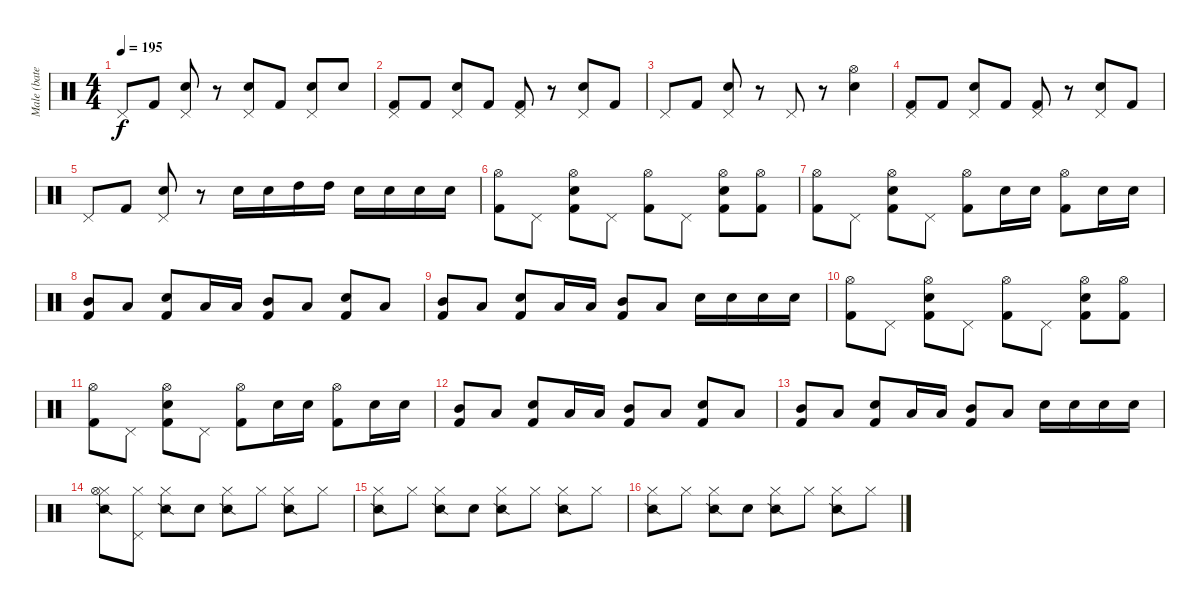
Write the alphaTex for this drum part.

\track ("Male (bateria)" "Male (bate") {instrument percussion}
\staff {score}
\articulation defaults
\ts (4 4)
\tempo 195
\clef neutral
\ks c "Pedal Hi-Hat (hit)".8{dy f} "Kick (hit) 2".8
("Electric Snare (hit)" "Pedal Hi-Hat (hit)").8 r.8 ("Electric Snare (hit)" "Pedal Hi-Hat (hit)").8 "Kick (hit) 2".8 ("Electric Snare (hit)" "Pedal Hi-Hat (hit)").8 "Electric Snare (hit)".8 |
("Kick (hit) 2" "Pedal Hi-Hat (hit)").8 "Kick (hit) 2".8 ("Electric Snare (hit)" "Pedal Hi-Hat (hit)").8 "Kick (hit) 2".8 ("Kick (hit) 2" "Pedal Hi-Hat (hit)").8 r.8 ("Electric Snare (hit)" "Pedal Hi-Hat (hit)").8 "Kick (hit) 2".8 |
"Pedal Hi-Hat (hit)".8 "Kick (hit) 2".8 ("Electric Snare (hit)" "Pedal Hi-Hat (hit)").8 r.8 "Pedal Hi-Hat (hit)".8 r.8 ("Electric Snare (hit)" "Hi-Hat (open)").4 |
("Kick (hit) 2" "Pedal Hi-Hat (hit)").8 "Kick (hit) 2".8 ("Electric Snare (hit)" "Pedal Hi-Hat (hit)").8 "Kick (hit) 2".8 ("Kick (hit) 2" "Pedal Hi-Hat (hit)").8 r.8 ("Electric Snare (hit)" "Pedal Hi-Hat (hit)").8 "Kick (hit) 2".8 |
"Pedal Hi-Hat (hit)".8 "Kick (hit) 2".8 ("Electric Snare (hit)" "Pedal Hi-Hat (hit)").8 r.8 "Electric Snare (hit)".16 "Electric Snare (hit)".16 "High Tom (hit)".16 "High Tom (hit)".16 "Electric Snare (hit)".16 "Electric Snare (hit)".16 "Electric Snare (hit)".16 "Electric Snare (hit)".16 |
("Kick (hit) 2" "Hi-Hat (open)").8 "Pedal Hi-Hat (hit)".8 ("Kick (hit) 2" "Electric Snare (hit)" "Hi-Hat (open)").8 "Pedal Hi-Hat (hit)".8 ("Kick (hit) 2" "Hi-Hat (open)").8 "Pedal Hi-Hat (hit)".8 ("Kick (hit) 2" "Electric Snare (hit)" "Hi-Hat (open)").8 ("Kick (hit) 2" "Hi-Hat (open)").8 |
("Kick (hit) 2" "Hi-Hat (open)").8 "Pedal Hi-Hat (hit)".8 ("Kick (hit) 2" "Electric Snare (hit)" "Hi-Hat (open)").8 "Pedal Hi-Hat (hit)".8 ("Kick (hit) 2" "Hi-Hat (open)").8 "Electric Snare (hit)".16 "Electric Snare (hit)".16 ("Kick (hit) 2" "Hi-Hat (open)").8 "Electric Snare (hit)".16 "Electric Snare (hit)".16 |
("Kick (hit) 2" "Mid Tom (hit)").8 "Low Tom (hit)".8 ("Kick (hit) 2" "Electric Snare (hit)").8 "Low Tom (hit)".16 "Low Tom (hit)".16 ("Kick (hit) 2" "Mid Tom (hit)").8 "Low Tom (hit)".8 ("Kick (hit) 2" "Electric Snare (hit)").8 "Low Tom (hit)".8 |
("Kick (hit) 2" "Mid Tom (hit)").8 "Low Tom (hit)".8 ("Kick (hit) 2" "Electric Snare (hit)").8 "Low Tom (hit)".16 "Low Tom (hit)".16 ("Kick (hit) 2" "Mid Tom (hit)").8 "Low Tom (hit)".8 "Electric Snare (hit)".16 "Electric Snare (hit)".16 "Electric Snare (hit)".16 "Electric Snare (hit)".16 |
("Kick (hit) 2" "Hi-Hat (open)").8 "Pedal Hi-Hat (hit)".8 ("Kick (hit) 2" "Electric Snare (hit)" "Hi-Hat (open)").8 "Pedal Hi-Hat (hit)".8 ("Kick (hit) 2" "Hi-Hat (open)").8 "Pedal Hi-Hat (hit)".8 ("Kick (hit) 2" "Electric Snare (hit)" "Hi-Hat (open)").8 ("Kick (hit) 2" "Hi-Hat (open)").8 |
("Kick (hit) 2" "Hi-Hat (open)").8 "Pedal Hi-Hat (hit)".8 ("Kick (hit) 2" "Electric Snare (hit)" "Hi-Hat (open)").8 "Pedal Hi-Hat (hit)".8 ("Kick (hit) 2" "Hi-Hat (open)").8 "Electric Snare (hit)".16 "Electric Snare (hit)".16 ("Kick (hit) 2" "Hi-Hat (open)").8 "Electric Snare (hit)".16 "Electric Snare (hit)".16 |
("Kick (hit) 2" "Mid Tom (hit)").8 "Low Tom (hit)".8 ("Kick (hit) 2" "Electric Snare (hit)").8 "Low Tom (hit)".16 "Low Tom (hit)".16 ("Kick (hit) 2" "Mid Tom (hit)").8 "Low Tom (hit)".8 ("Kick (hit) 2" "Electric Snare (hit)").8 "Low Tom (hit)".8 |
("Kick (hit) 2" "Mid Tom (hit)").8 "Low Tom (hit)".8 ("Kick (hit) 2" "Electric Snare (hit)").8 "Low Tom (hit)".16 "Low Tom (hit)".16 ("Kick (hit) 2" "Mid Tom (hit)").8 "Low Tom (hit)".8 "Electric Snare (hit)".16 "Electric Snare (hit)".16 "Electric Snare (hit)".16 "Electric Snare (hit)".16 |
("Hi-Hat (closed)" "Hi-Hat (open)" "Snare (side stick) 2").8 ("Hi-Hat (closed)" "Pedal Hi-Hat (hit)").8 ("Hi-Hat (closed)" "Snare (side stick) 2").8 "Metronome (bell)".8 ("Hi-Hat (closed)" "Snare (side stick) 2").8 "Hi-Hat (closed)".8 ("Hi-Hat (closed)" "Snare (side stick) 2").8 "Hi-Hat (closed)".8 |
("Hi-Hat (closed)" "Snare (side stick) 2").8 "Hi-Hat (closed)".8 ("Hi-Hat (closed)" "Snare (side stick) 2").8 "Metronome (bell)".8 ("Hi-Hat (closed)" "Snare (side stick) 2").8 "Hi-Hat (closed)".8 ("Hi-Hat (closed)" "Snare (side stick) 2").8 "Hi-Hat (closed)".8 |
("Hi-Hat (closed)" "Snare (side stick) 2").8 "Hi-Hat (closed)".8 ("Hi-Hat (closed)" "Snare (side stick) 2").8 "Metronome (bell)".8 ("Hi-Hat (closed)" "Snare (side stick) 2").8 "Hi-Hat (closed)".8 ("Hi-Hat (closed)" "Snare (side stick) 2").8 "Hi-Hat (closed)".8
